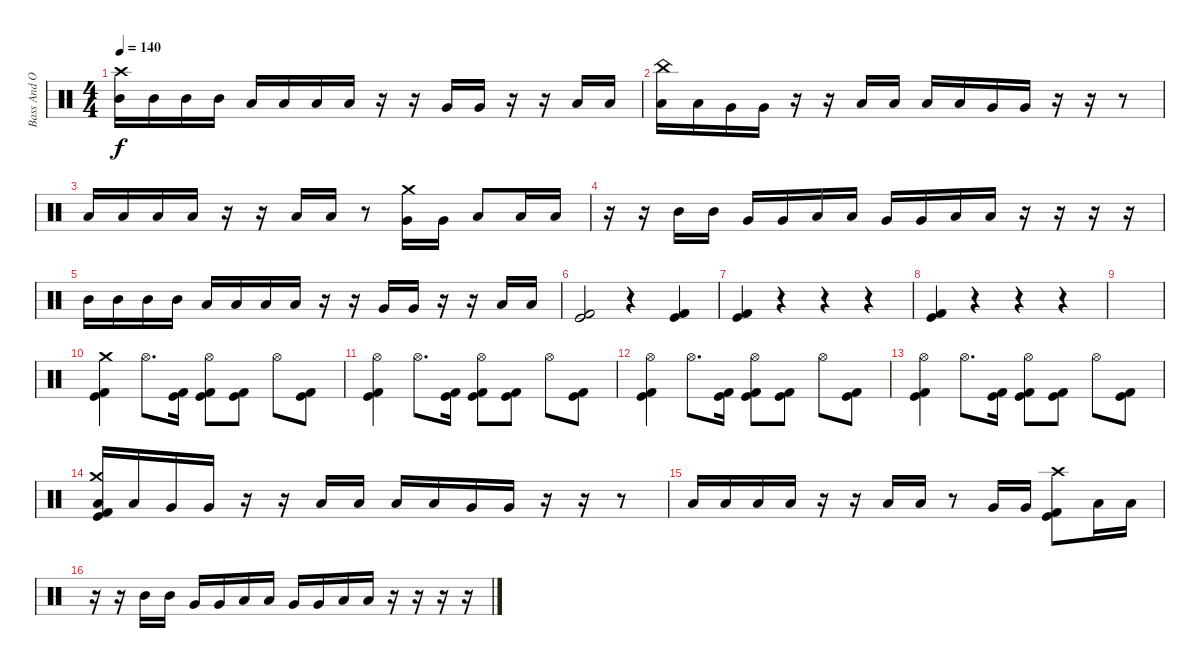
\track ("Bass And Other Things" "Bass And O") {instrument percussion}
\staff {score}
\articulation defaults
\ts (4 4)
\tempo 140
\clef neutral
\ks c
("Mid Tom (hit)" "Crash high (hit)").16{dy f} "Mid Tom (hit)".16 "Mid Tom (hit)".16 "Mid Tom (hit)".16 "Low Tom (hit)".16 "Low Tom (hit)".16 "Low Tom (hit)".16 "Low Tom (hit)".16 r.16 r.16 "Very Low Tom (hit)".16 "Very Low Tom (hit)".16 r.16 r.16 "Low Floor Tom (hit)".16 "Low Floor Tom (hit)".16 |
("Low Tom (hit)" "China (hit)").16 "Low Tom (hit)".16 "Very Low Tom (hit)".16 "Very Low Tom (hit)".16 r.16 r.16 "Low Tom (hit)".16 "Low Tom (hit)".16 "Low Tom (hit)".16 "Low Tom (hit)".16 "Very Low Tom (hit)".16 "Very Low Tom (hit)".16 r.16 r.16 r.8 |
"Low Tom (hit)".16 "Low Tom (hit)".16 "Low Tom (hit)".16 "Low Tom (hit)".16 r.16 r.16 "Low Tom (hit)".16 "Low Tom (hit)".16 r.8 ("Very Low Tom (hit)" "Crash medium (hit)").16 "Very Low Tom (hit)".16 "Low Floor Tom (hit)".8 "Low Floor Tom (hit)".16 "Low Floor Tom (hit)".16 |
r.16 r.16 "Mid Tom (hit)".16 "Mid Tom (hit)".16 "Very Low Tom (hit)".16 "Very Low Tom (hit)".16 "Low Tom (hit)".16 "Low Tom (hit)".16 "Very Low Tom (hit)".16 "Very Low Tom (hit)".16 "Low Floor Tom (hit)".16 "Low Floor Tom (hit)".16 r.16 r.16 r.16 r.16 |
"Mid Tom (hit)".16 "Mid Tom (hit)".16 "Mid Tom (hit)".16 "Mid Tom (hit)".16 "Low Tom (hit)".16 "Low Tom (hit)".16 "Low Tom (hit)".16 "Low Tom (hit)".16 r.16 r.16 "Very Low Tom (hit)".16 "Very Low Tom (hit)".16 r.16 r.16 "Low Floor Tom (hit)".16 "Low Floor Tom (hit)".16 |
("Kick (hit)" "Kick (hit) 2").2 r.4 ("Kick (hit) 2" "Kick (hit)").4 |
("Kick (hit) 2" "Kick (hit)").4 r.4 r.4 r.4 |
("Kick (hit) 2" "Kick (hit)").4 r.4 r.4 r.4 |
|
("Kick (hit) 2" "Kick (hit)" "Crash medium (hit)").4 "Hi-Hat (open)".8{d} ("Kick (hit)" "Kick (hit) 2").16 ("Kick (hit) 2" "Kick (hit)" "Hi-Hat (open)").8 ("Kick (hit) 2" "Kick (hit)").8 "Hi-Hat (open)".8 ("Kick (hit)" "Kick (hit) 2").8 |
("Kick (hit) 2" "Kick (hit)" "Hi-Hat (open)").4 "Hi-Hat (open)".8{d} ("Kick (hit)" "Kick (hit) 2").16 ("Kick (hit) 2" "Kick (hit)" "Hi-Hat (open)").8 ("Kick (hit) 2" "Kick (hit)").8 "Hi-Hat (open)".8 ("Kick (hit)" "Kick (hit) 2").8 |
("Kick (hit) 2" "Kick (hit)" "Hi-Hat (open)").4 "Hi-Hat (open)".8{d} ("Kick (hit)" "Kick (hit) 2").16 ("Kick (hit) 2" "Kick (hit)" "Hi-Hat (open)").8 ("Kick (hit) 2" "Kick (hit)").8 "Hi-Hat (open)".8 ("Kick (hit)" "Kick (hit) 2").8 |
("Kick (hit) 2" "Kick (hit)" "Hi-Hat (open)").4 "Hi-Hat (open)".8{d} ("Kick (hit)" "Kick (hit) 2").16 ("Kick (hit) 2" "Kick (hit)" "Hi-Hat (open)").8 ("Kick (hit) 2" "Kick (hit)").8 "Hi-Hat (open)".8 ("Kick (hit)" "Kick (hit) 2").8 |
("Low Tom (hit)" "Crash medium (hit)" "Kick (hit)" "Kick (hit) 2").16 "Low Tom (hit)".16 "Very Low Tom (hit)".16 "Very Low Tom (hit)".16 r.16 r.16 "Low Tom (hit)".16 "Low Tom (hit)".16 "Low Tom (hit)".16 "Low Tom (hit)".16 "Very Low Tom (hit)".16 "Very Low Tom (hit)".16 r.16 r.16 r.8 |
"Low Tom (hit)".16 "Low Tom (hit)".16 "Low Tom (hit)".16 "Low Tom (hit)".16 r.16 r.16 "Low Tom (hit)".16 "Low Tom (hit)".16 r.8 "Very Low Tom (hit)".16 "Very Low Tom (hit)".16 ("Kick (hit)" "Kick (hit) 2" "Crash high (hit)").8 "Low Floor Tom (hit)".16 "Low Floor Tom (hit)".16 |
r.16 r.16 "Mid Tom (hit)".16 "Mid Tom (hit)".16 "Very Low Tom (hit)".16 "Very Low Tom (hit)".16 "Low Tom (hit)".16 "Low Tom (hit)".16 "Very Low Tom (hit)".16 "Very Low Tom (hit)".16 "Low Floor Tom (hit)".16 "Low Floor Tom (hit)".16 r.16 r.16 r.16 r.16
